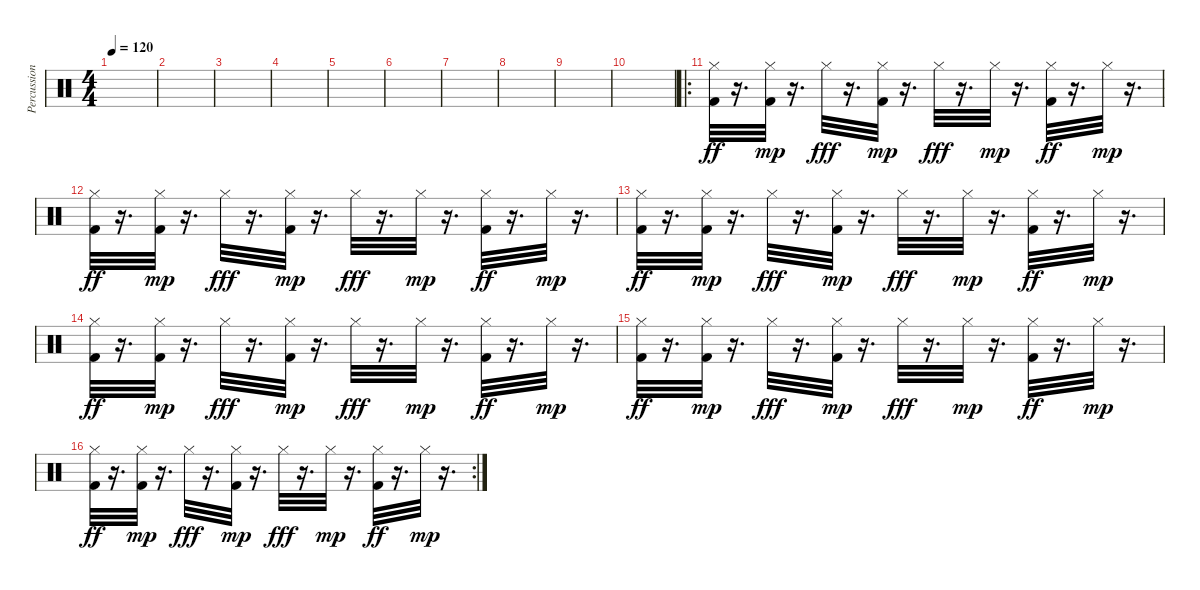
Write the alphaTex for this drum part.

\track ("Percussion" "Percussion") {instrument percussion}
\staff {score}
\articulation defaults
\ts (4 4)
\tempo 120
\clef neutral
\ks c
|
|
|
|
|
|
|
|
|
|
\ro
("Kick (hit) 2" "Hi-Hat (closed)").32{dy ff} r.16{d} ("Kick (hit) 2" "Hi-Hat (closed)").32{dy mp} r.16{d} "Hi-Hat (closed)".32{dy fff} r.16{d} ("Kick (hit) 2" "Hi-Hat (closed)").32{dy mp} r.16{d} "Hi-Hat (closed)".32{dy fff} r.16{d} "Hi-Hat (closed)".32{dy mp} r.16{d} ("Kick (hit) 2" "Hi-Hat (closed)").32{dy ff} r.16{d} "Hi-Hat (closed)".32{dy mp} r.16{d} |
("Kick (hit) 2" "Hi-Hat (closed)").32{dy ff} r.16{d} ("Kick (hit) 2" "Hi-Hat (closed)").32{dy mp} r.16{d} "Hi-Hat (closed)".32{dy fff} r.16{d} ("Kick (hit) 2" "Hi-Hat (closed)").32{dy mp} r.16{d} "Hi-Hat (closed)".32{dy fff} r.16{d} "Hi-Hat (closed)".32{dy mp} r.16{d} ("Kick (hit) 2" "Hi-Hat (closed)").32{dy ff} r.16{d} "Hi-Hat (closed)".32{dy mp} r.16{d} |
("Kick (hit) 2" "Hi-Hat (closed)").32{dy ff} r.16{d} ("Kick (hit) 2" "Hi-Hat (closed)").32{dy mp} r.16{d} "Hi-Hat (closed)".32{dy fff} r.16{d} ("Kick (hit) 2" "Hi-Hat (closed)").32{dy mp} r.16{d} "Hi-Hat (closed)".32{dy fff} r.16{d} "Hi-Hat (closed)".32{dy mp} r.16{d} ("Kick (hit) 2" "Hi-Hat (closed)").32{dy ff} r.16{d} "Hi-Hat (closed)".32{dy mp} r.16{d} |
("Kick (hit) 2" "Hi-Hat (closed)").32{dy ff} r.16{d} ("Kick (hit) 2" "Hi-Hat (closed)").32{dy mp} r.16{d} "Hi-Hat (closed)".32{dy fff} r.16{d} ("Kick (hit) 2" "Hi-Hat (closed)").32{dy mp} r.16{d} "Hi-Hat (closed)".32{dy fff} r.16{d} "Hi-Hat (closed)".32{dy mp} r.16{d} ("Kick (hit) 2" "Hi-Hat (closed)").32{dy ff} r.16{d} "Hi-Hat (closed)".32{dy mp} r.16{d} |
("Kick (hit) 2" "Hi-Hat (closed)").32{dy ff} r.16{d} ("Kick (hit) 2" "Hi-Hat (closed)").32{dy mp} r.16{d} "Hi-Hat (closed)".32{dy fff} r.16{d} ("Kick (hit) 2" "Hi-Hat (closed)").32{dy mp} r.16{d} "Hi-Hat (closed)".32{dy fff} r.16{d} "Hi-Hat (closed)".32{dy mp} r.16{d} ("Kick (hit) 2" "Hi-Hat (closed)").32{dy ff} r.16{d} "Hi-Hat (closed)".32{dy mp} r.16{d} |
\rc 2
("Kick (hit) 2" "Hi-Hat (closed)").32{dy ff} r.16{d} ("Kick (hit) 2" "Hi-Hat (closed)").32{dy mp} r.16{d} "Hi-Hat (closed)".32{dy fff} r.16{d} ("Kick (hit) 2" "Hi-Hat (closed)").32{dy mp} r.16{d} "Hi-Hat (closed)".32{dy fff} r.16{d} "Hi-Hat (closed)".32{dy mp} r.16{d} ("Kick (hit) 2" "Hi-Hat (closed)").32{dy ff} r.16{d} "Hi-Hat (closed)".32{dy mp} r.16{d}
